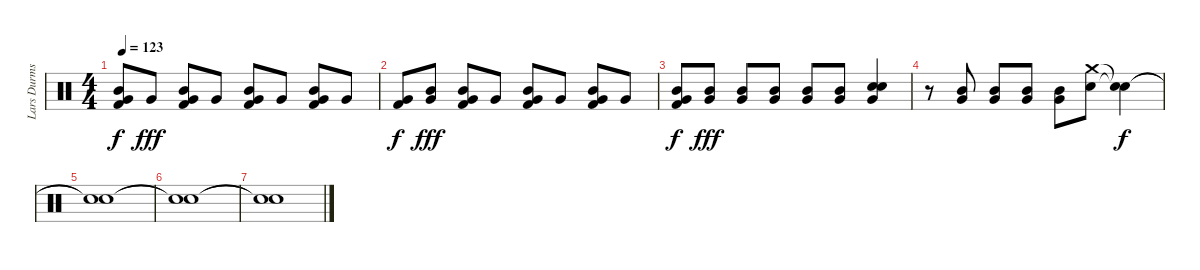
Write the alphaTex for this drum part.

\track ("Lars Durms" "Lars Durms") {instrument percussion}
\staff {score}
\articulation defaults
\ts (4 4)
\tempo 123
\clef neutral
\ks c
("Kick (hit) 2" "Very Low Tom (hit)" "Mid Tom (hit)").8{dy f} "Very Low Tom (hit)".8{dy fff} ("Kick (hit) 2" "Very Low Tom (hit)" "Mid Tom (hit)").8 "Very Low Tom (hit)".8 ("Kick (hit) 2" "Very Low Tom (hit)" "Mid Tom (hit)").8 "Very Low Tom (hit)".8 ("Kick (hit) 2" "Very Low Tom (hit)" "Mid Tom (hit)").8 "Very Low Tom (hit)".8 |
("Very Low Tom (hit)" "Kick (hit) 2").8{dy f} ("Mid Tom (hit)" "Very Low Tom (hit)").8{dy fff} ("Kick (hit) 2" "Very Low Tom (hit)" "Mid Tom (hit)").8 "Very Low Tom (hit)".8 ("Very Low Tom (hit)" "Mid Tom (hit)" "Kick (hit) 2").8 "Very Low Tom (hit)".8 ("Mid Tom (hit)" "Very Low Tom (hit)" "Kick (hit) 2").8 "Very Low Tom (hit)".8 |
("Very Low Tom (hit)" "Mid Tom (hit)" "Kick (hit) 2").8{dy f} ("Very Low Tom (hit)" "Mid Tom (hit)").8{dy fff} ("Mid Tom (hit)" "Very Low Tom (hit)").8 ("Very Low Tom (hit)" "Mid Tom (hit)").8 ("Very Low Tom (hit)" "Mid Tom (hit)").8 ("Very Low Tom (hit)" "Mid Tom (hit)").8 ("Very Low Tom (hit)" "Snare (hit) 2" "Snare (hit) 2").4 |
r.8 ("Very Low Tom (hit)" "Mid Tom (hit)").8 ("Mid Tom (hit)" "Very Low Tom (hit)").8 ("Mid Tom (hit)" "Very Low Tom (hit)").8 ("Mid Tom (hit)" "Very Low Tom (hit)").8 ("Crash medium (hit)" "Snare (hit) 2").8 ("Snare (hit)"{t} "Snare (hit)"{t}).4{dy f} |
("Snare (hit)"{t} "Snare (hit)"{t}).1 |
("Snare (hit)"{t} "Snare (hit)"{t}).1 |
("Snare (hit)"{t} "Snare (hit)"{t}).1
